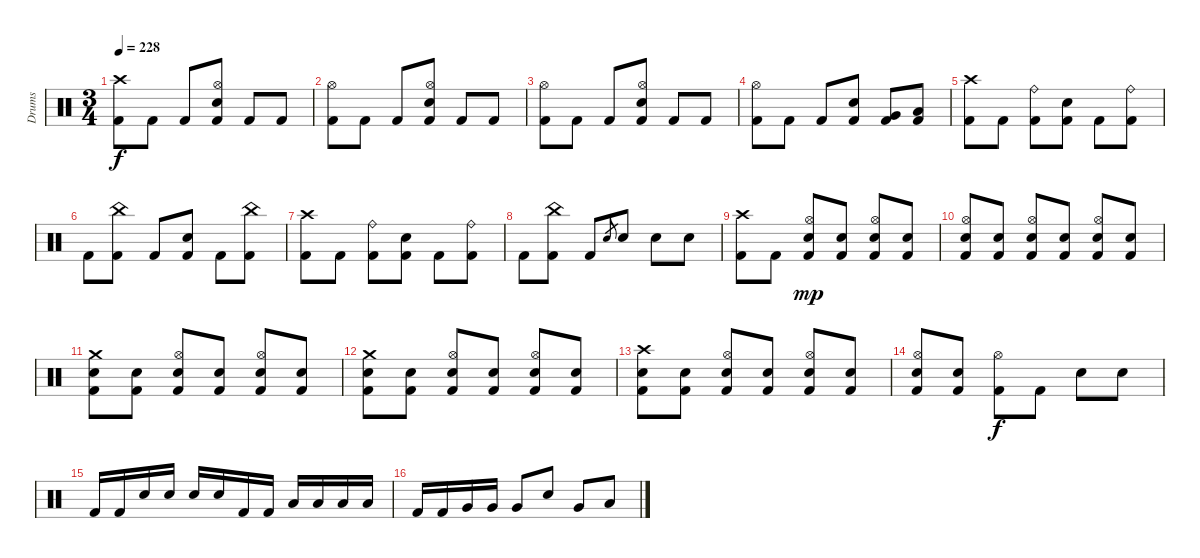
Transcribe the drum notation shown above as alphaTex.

\track ("Drums" "Drums") {instrument percussion}
\staff {score}
\articulation defaults
\ts (3 4)
\tempo 228
\clef neutral
\ks c
("Crash high (hit)" "Kick (hit) 2").8{dy f} "Kick (hit) 2".8 "Kick (hit) 2".8 ("Hi-Hat (open)" "Electric Snare (hit)" "Kick (hit) 2").8 "Kick (hit) 2".8 "Kick (hit) 2".8 |
("Hi-Hat (open)" "Kick (hit) 2").8 "Kick (hit) 2".8 "Kick (hit) 2".8 ("Hi-Hat (open)" "Electric Snare (hit)" "Kick (hit) 2").8 "Kick (hit) 2".8 "Kick (hit) 2".8 |
("Hi-Hat (open)" "Kick (hit) 2").8 "Kick (hit) 2".8 "Kick (hit) 2".8 ("Hi-Hat (open)" "Electric Snare (hit)" "Kick (hit) 2").8 "Kick (hit) 2".8 "Kick (hit) 2".8 |
("Hi-Hat (open)" "Kick (hit) 2").8 "Kick (hit) 2".8 "Kick (hit) 2".8 ("Electric Snare (hit)" "Kick (hit) 2").8 ("Very Low Tom (hit)" "Kick (hit) 2").8 ("Low Floor Tom (hit)" "Kick (hit) 2").8 |
("Crash high (hit)" "Kick (hit) 2").8 "Kick (hit) 2".8 ("Ride (bell)" "Kick (hit) 2").8 ("Electric Snare (hit)" "Kick (hit) 2").8 "Kick (hit) 2".8 ("Ride (bell)" "Kick (hit) 2").8 |
"Kick (hit) 2".8 ("China (hit)" "Kick (hit) 2").8 "Kick (hit) 2".8 ("Electric Snare (hit)" "Kick (hit) 2").8 "Kick (hit) 2".8 ("China (hit)" "Kick (hit) 2").8 |
("Crash high (hit)" "Kick (hit) 2").8 "Kick (hit) 2".8 ("Ride (bell)" "Kick (hit) 2").8 ("Electric Snare (hit)" "Kick (hit) 2").8 "Kick (hit) 2".8 ("Ride (bell)" "Kick (hit) 2").8 |
"Kick (hit) 2".8 ("China (hit)" "Kick (hit) 2").8 "Kick (hit) 2".8 "Electric Snare (hit)".8{gr} "Electric Snare (hit)".8 "Electric Snare (hit)".8 "Electric Snare (hit)".8 |
("Crash high (hit)" "Kick (hit) 2").8{volume 14} "Kick (hit) 2".8 ("Hi-Hat (open)" "Electric Snare (hit)" "Kick (hit) 2").8{dy mp} ("Electric Snare (hit)" "Kick (hit) 2").8 ("Hi-Hat (open)" "Electric Snare (hit)" "Kick (hit) 2").8 ("Electric Snare (hit)" "Kick (hit) 2").8 |
("Hi-Hat (open)" "Electric Snare (hit)" "Kick (hit) 2").8 ("Electric Snare (hit)" "Kick (hit) 2").8 ("Hi-Hat (open)" "Electric Snare (hit)" "Kick (hit) 2").8 ("Electric Snare (hit)" "Kick (hit) 2").8 ("Hi-Hat (open)" "Electric Snare (hit)" "Kick (hit) 2").8 ("Electric Snare (hit)" "Kick (hit) 2").8 |
("Crash medium (hit)" "Electric Snare (hit)" "Kick (hit) 2").8 ("Electric Snare (hit)" "Kick (hit) 2").8 ("Hi-Hat (open)" "Electric Snare (hit)" "Kick (hit) 2").8 ("Electric Snare (hit)" "Kick (hit) 2").8 ("Hi-Hat (open)" "Electric Snare (hit)" "Kick (hit) 2").8 ("Electric Snare (hit)" "Kick (hit) 2").8 |
("Crash medium (hit)" "Electric Snare (hit)" "Kick (hit) 2").8 ("Electric Snare (hit)" "Kick (hit) 2").8 ("Hi-Hat (open)" "Electric Snare (hit)" "Kick (hit) 2").8 ("Electric Snare (hit)" "Kick (hit) 2").8 ("Hi-Hat (open)" "Electric Snare (hit)" "Kick (hit) 2").8 ("Electric Snare (hit)" "Kick (hit) 2").8 |
("Crash high (hit)" "Electric Snare (hit)" "Kick (hit) 2").8 ("Electric Snare (hit)" "Kick (hit) 2").8 ("Hi-Hat (open)" "Electric Snare (hit)" "Kick (hit) 2").8 ("Electric Snare (hit)" "Kick (hit) 2").8 ("Hi-Hat (open)" "Electric Snare (hit)" "Kick (hit) 2").8 ("Electric Snare (hit)" "Kick (hit) 2").8 |
("Hi-Hat (open)" "Electric Snare (hit)" "Kick (hit) 2").8 ("Electric Snare (hit)" "Kick (hit) 2").8 ("Hi-Hat (open)" "Kick (hit) 2").8{dy f} "Kick (hit) 2".8 "Electric Snare (hit)".8 "Electric Snare (hit)".8 |
"Kick (hit) 2".16 "Kick (hit) 2".16 "Electric Snare (hit)".16 "Electric Snare (hit)".16 "Electric Snare (hit)".16 "Electric Snare (hit)".16 "Kick (hit) 2".16 "Kick (hit) 2".16 "Low Tom (hit)".16 "Low Tom (hit)".16 "Low Tom (hit)".16 "Low Tom (hit)".16 |
"Kick (hit) 2".16 "Kick (hit) 2".16 "Very Low Tom (hit)".16 "Very Low Tom (hit)".16 "Very Low Tom (hit)".8 "Electric Snare (hit)".8 "Very Low Tom (hit)".8 "Low Floor Tom (hit)".8
